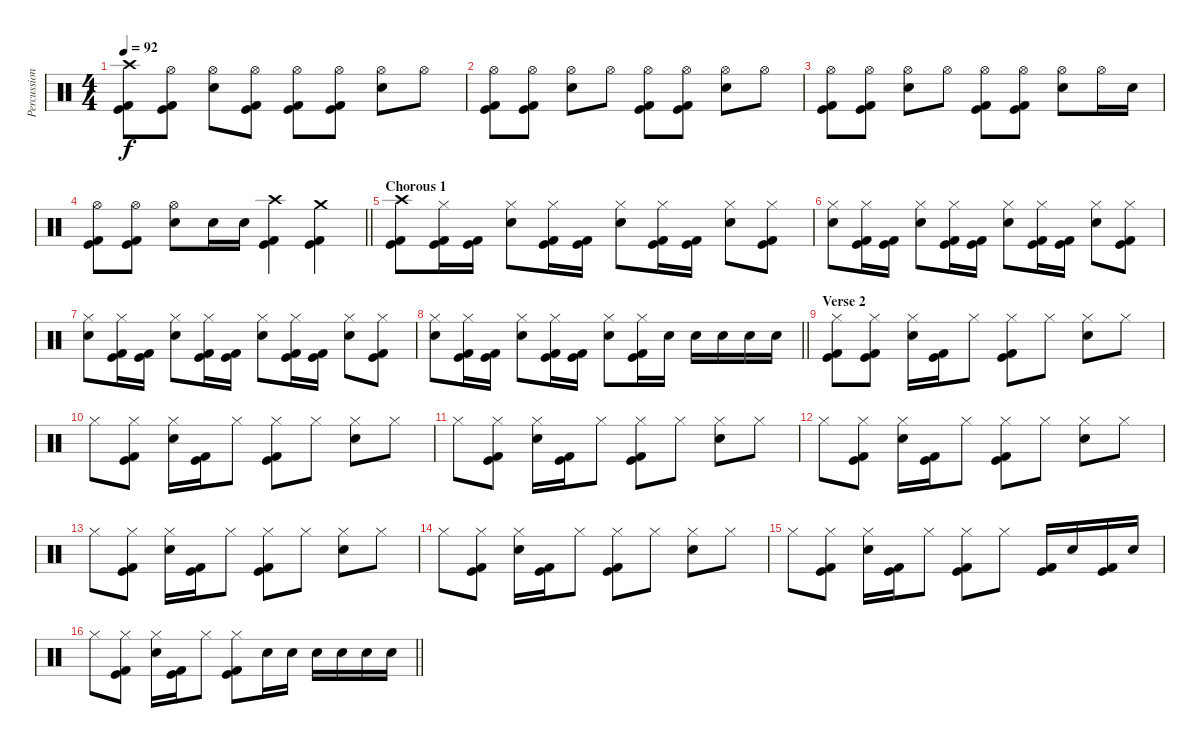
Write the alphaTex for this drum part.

\track ("Percussion" "Percussion") {instrument percussion}
\staff {score}
\articulation defaults
\ts (4 4)
\section ("" "")
\tempo 92
\clef neutral
\ks c
("Crash high (hit)" "Kick (hit)" "Kick (hit) 2").8{dy f} ("Hi-Hat (open)" "Kick (hit)" "Kick (hit) 2").8 ("Hi-Hat (open)" "Electric Snare (hit)").8 ("Hi-Hat (open)" "Kick (hit)" "Kick (hit) 2").8 ("Hi-Hat (open)" "Kick (hit)" "Kick (hit) 2").8 ("Hi-Hat (open)" "Kick (hit)" "Kick (hit) 2").8 ("Hi-Hat (open)" "Electric Snare (hit)").8 "Hi-Hat (open)".8 |
("Hi-Hat (open)" "Kick (hit)" "Kick (hit) 2").8 ("Hi-Hat (open)" "Kick (hit)" "Kick (hit) 2").8 ("Hi-Hat (open)" "Electric Snare (hit)").8 "Hi-Hat (open)".8 ("Hi-Hat (open)" "Kick (hit)" "Kick (hit) 2").8 ("Hi-Hat (open)" "Kick (hit)" "Kick (hit) 2").8 ("Hi-Hat (open)" "Electric Snare (hit)").8 "Hi-Hat (open)".8 |
("Hi-Hat (open)" "Kick (hit)" "Kick (hit) 2").8 ("Hi-Hat (open)" "Kick (hit)" "Kick (hit) 2").8 ("Hi-Hat (open)" "Electric Snare (hit)").8 "Hi-Hat (open)".8 ("Hi-Hat (open)" "Kick (hit)" "Kick (hit) 2").8 ("Hi-Hat (open)" "Kick (hit)" "Kick (hit) 2").8 ("Hi-Hat (open)" "Electric Snare (hit)").8 "Hi-Hat (open)".16 "Electric Snare (hit)".16 |
\barLineRight lightlight
("Hi-Hat (open)" "Kick (hit)" "Kick (hit) 2").8 ("Hi-Hat (open)" "Kick (hit)" "Kick (hit) 2").8 ("Hi-Hat (open)" "Electric Snare (hit)").8 "Electric Snare (hit)".16 "Electric Snare (hit)".16 ("Crash high (hit)" "Kick (hit)" "Kick (hit) 2").4 ("Crash medium (hit)" "Kick (hit)" "Kick (hit) 2").4 |
\section ("" "Chorous 1")
("Crash high (hit)" "Kick (hit)" "Kick (hit) 2").8 ("Hi-Hat (closed)" "Kick (hit)" "Kick (hit) 2").16 ("Kick (hit)" "Kick (hit) 2").16 ("Hi-Hat (closed)" "Electric Snare (hit)").8 ("Hi-Hat (closed)" "Kick (hit)" "Kick (hit) 2").16 ("Kick (hit)" "Kick (hit) 2").16 ("Hi-Hat (closed)" "Electric Snare (hit)").8 ("Hi-Hat (closed)" "Kick (hit)" "Kick (hit) 2").16 ("Kick (hit)" "Kick (hit) 2").16 ("Hi-Hat (closed)" "Electric Snare (hit)").8 ("Hi-Hat (closed)" "Kick (hit)" "Kick (hit) 2").8 |
("Hi-Hat (closed)" "Electric Snare (hit)").8 ("Hi-Hat (closed)" "Kick (hit)" "Kick (hit) 2").16 ("Kick (hit)" "Kick (hit) 2").16 ("Hi-Hat (closed)" "Electric Snare (hit)").8 ("Hi-Hat (closed)" "Kick (hit)" "Kick (hit) 2").16 ("Kick (hit)" "Kick (hit) 2").16 ("Hi-Hat (closed)" "Electric Snare (hit)").8 ("Hi-Hat (closed)" "Kick (hit)" "Kick (hit) 2").16 ("Kick (hit)" "Kick (hit) 2").16 ("Hi-Hat (closed)" "Electric Snare (hit)").8 ("Hi-Hat (closed)" "Kick (hit)" "Kick (hit) 2").8 |
("Hi-Hat (closed)" "Electric Snare (hit)").8 ("Hi-Hat (closed)" "Kick (hit)" "Kick (hit) 2").16 ("Kick (hit)" "Kick (hit) 2").16 ("Hi-Hat (closed)" "Electric Snare (hit)").8 ("Hi-Hat (closed)" "Kick (hit)" "Kick (hit) 2").16 ("Kick (hit)" "Kick (hit) 2").16 ("Hi-Hat (closed)" "Electric Snare (hit)").8 ("Hi-Hat (closed)" "Kick (hit)" "Kick (hit) 2").16 ("Kick (hit)" "Kick (hit) 2").16 ("Hi-Hat (closed)" "Electric Snare (hit)").8 ("Hi-Hat (closed)" "Kick (hit)" "Kick (hit) 2").8 |
\barLineRight lightlight
("Hi-Hat (closed)" "Electric Snare (hit)").8 ("Hi-Hat (closed)" "Kick (hit)" "Kick (hit) 2").16 ("Kick (hit)" "Kick (hit) 2").16 ("Hi-Hat (closed)" "Electric Snare (hit)").8 ("Hi-Hat (closed)" "Kick (hit)" "Kick (hit) 2").16 ("Kick (hit)" "Kick (hit) 2").16 ("Hi-Hat (closed)" "Electric Snare (hit)").8 ("Hi-Hat (closed)" "Kick (hit)" "Kick (hit) 2").16 "Electric Snare (hit)".16 "Electric Snare (hit)".16 "Electric Snare (hit)".16 "Electric Snare (hit)".16 "Electric Snare (hit)".16 |
\section ("" "Verse 2")
("Hi-Hat (closed)" "Kick (hit)" "Kick (hit) 2").8 ("Hi-Hat (closed)" "Kick (hit)" "Kick (hit) 2").8 ("Hi-Hat (closed)" "Electric Snare (hit)").16 ("Kick (hit)" "Kick (hit) 2").16 "Hi-Hat (closed)".8 ("Hi-Hat (closed)" "Kick (hit)" "Kick (hit) 2").8 "Hi-Hat (closed)".8 ("Hi-Hat (closed)" "Electric Snare (hit)").8 "Hi-Hat (closed)".8 |
"Hi-Hat (closed)".8 ("Hi-Hat (closed)" "Kick (hit)" "Kick (hit) 2").8 ("Hi-Hat (closed)" "Electric Snare (hit)").16 ("Kick (hit)" "Kick (hit) 2").16 "Hi-Hat (closed)".8 ("Hi-Hat (closed)" "Kick (hit)" "Kick (hit) 2").8 "Hi-Hat (closed)".8 ("Hi-Hat (closed)" "Electric Snare (hit)").8 "Hi-Hat (closed)".8 |
"Hi-Hat (closed)".8 ("Hi-Hat (closed)" "Kick (hit)" "Kick (hit) 2").8 ("Hi-Hat (closed)" "Electric Snare (hit)").16 ("Kick (hit)" "Kick (hit) 2").16 "Hi-Hat (closed)".8 ("Hi-Hat (closed)" "Kick (hit)" "Kick (hit) 2").8 "Hi-Hat (closed)".8 ("Hi-Hat (closed)" "Electric Snare (hit)").8 "Hi-Hat (closed)".8 |
"Hi-Hat (closed)".8 ("Hi-Hat (closed)" "Kick (hit)" "Kick (hit) 2").8 ("Hi-Hat (closed)" "Electric Snare (hit)").16 ("Kick (hit)" "Kick (hit) 2").16 "Hi-Hat (closed)".8 ("Hi-Hat (closed)" "Kick (hit)" "Kick (hit) 2").8 "Hi-Hat (closed)".8 ("Hi-Hat (closed)" "Electric Snare (hit)").8 "Hi-Hat (closed)".8 |
"Hi-Hat (closed)".8 ("Hi-Hat (closed)" "Kick (hit)" "Kick (hit) 2").8 ("Hi-Hat (closed)" "Electric Snare (hit)").16 ("Kick (hit)" "Kick (hit) 2").16 "Hi-Hat (closed)".8 ("Hi-Hat (closed)" "Kick (hit)" "Kick (hit) 2").8 "Hi-Hat (closed)".8 ("Hi-Hat (closed)" "Electric Snare (hit)").8 "Hi-Hat (closed)".8 |
"Hi-Hat (closed)".8 ("Hi-Hat (closed)" "Kick (hit)" "Kick (hit) 2").8 ("Hi-Hat (closed)" "Electric Snare (hit)").16 ("Kick (hit)" "Kick (hit) 2").16 "Hi-Hat (closed)".8 ("Hi-Hat (closed)" "Kick (hit)" "Kick (hit) 2").8 "Hi-Hat (closed)".8 ("Hi-Hat (closed)" "Electric Snare (hit)").8 "Hi-Hat (closed)".8 |
"Hi-Hat (closed)".8 ("Hi-Hat (closed)" "Kick (hit)" "Kick (hit) 2").8 ("Hi-Hat (closed)" "Electric Snare (hit)").16 ("Kick (hit)" "Kick (hit) 2").16 "Hi-Hat (closed)".8 ("Hi-Hat (closed)" "Kick (hit)" "Kick (hit) 2").8 "Hi-Hat (closed)".8 ("Kick (hit)" "Kick (hit) 2").16 "Electric Snare (hit)".16 ("Kick (hit)" "Kick (hit) 2").16 "Electric Snare (hit)".16 |
\barLineRight lightlight "Hi-Hat (closed)".8
("Hi-Hat (closed)" "Kick (hit)" "Kick (hit) 2").8 ("Hi-Hat (closed)" "Electric Snare (hit)").16 ("Kick (hit)" "Kick (hit) 2").16 "Hi-Hat (closed)".8 ("Hi-Hat (closed)" "Kick (hit)" "Kick (hit) 2").8 "Electric Snare (hit)".16 "Electric Snare (hit)".16 "Electric Snare (hit)".16 "Electric Snare (hit)".16 "Electric Snare (hit)".16 "Electric Snare (hit)".16
